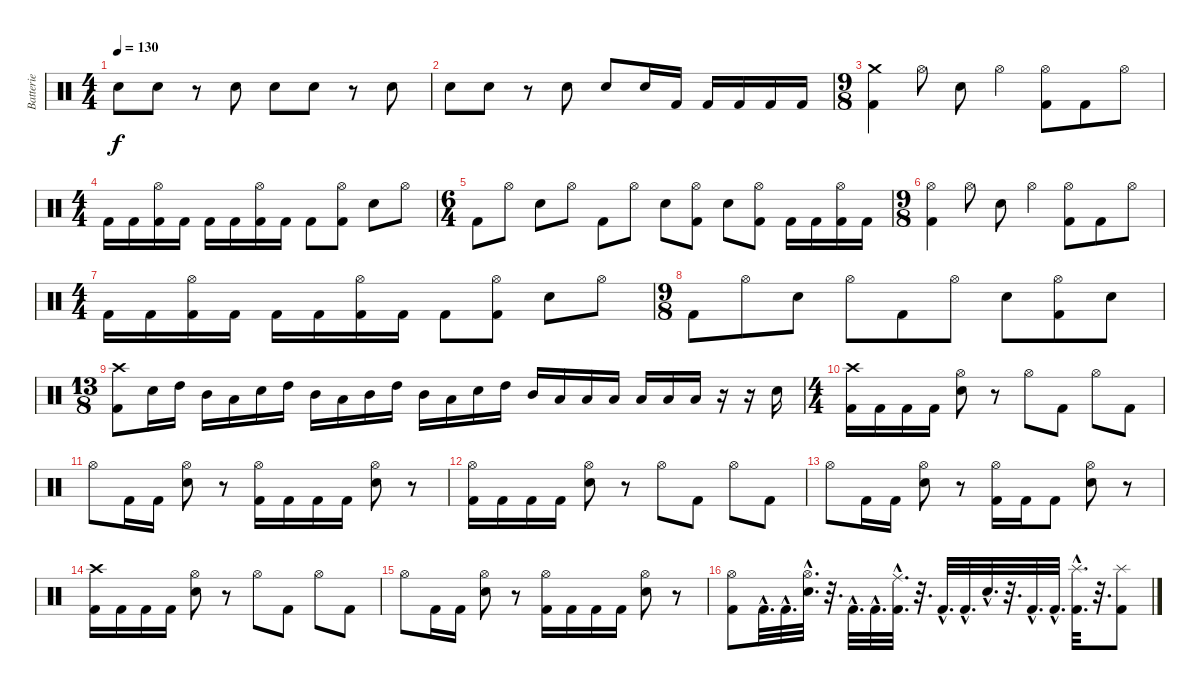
\track ("Batterie" "Batterie") {instrument percussion}
\staff {score}
\articulation defaults
\ts (4 4)
\tempo 130
\clef neutral
\ks c "Snare (hit) 2".8{dy f} "Snare (hit) 2".8
r.8 "Snare (hit) 2".8 "Snare (hit) 2".8 "Snare (hit) 2".8 r.8 "Snare (hit) 2".8 |
"Snare (hit) 2".8 "Snare (hit) 2".8 r.8 "Snare (hit) 2".8 "Snare (hit) 2".8 "Snare (hit) 2".16 "Kick (hit) 2".16 "Kick (hit) 2".16 "Kick (hit) 2".16 "Kick (hit) 2".16 "Kick (hit) 2".16 |
\ts (9 8)
("Crash medium (hit)" "Kick (hit) 2").4 "Hi-Hat (open)".8 "Snare (hit) 2".8 "Hi-Hat (open)".4 ("Hi-Hat (open)" "Kick (hit) 2").8 "Kick (hit) 2".8 "Hi-Hat (open)".8 |
\ts (4 4)
"Kick (hit) 2".16 "Kick (hit) 2".16 ("Hi-Hat (open)" "Kick (hit) 2").16 "Kick (hit) 2".16 "Kick (hit) 2".16 "Kick (hit) 2".16 ("Hi-Hat (open)" "Kick (hit) 2").16 "Kick (hit) 2".16 "Kick (hit) 2".8 ("Hi-Hat (open)" "Kick (hit) 2").8 "Snare (hit) 2".8 "Hi-Hat (open)".8 |
\ts (6 4)
"Kick (hit) 2".8 "Hi-Hat (open)".8 "Snare (hit) 2".8 "Hi-Hat (open)".8 "Kick (hit) 2".8 "Hi-Hat (open)".8 "Snare (hit) 2".8 ("Hi-Hat (open)" "Kick (hit) 2").8 "Snare (hit) 2".8 ("Hi-Hat (open)" "Kick (hit) 2").8 "Kick (hit) 2".16 "Kick (hit) 2".16 ("Hi-Hat (open)" "Kick (hit) 2").16 "Kick (hit) 2".16 |
\ts (9 8)
("Hi-Hat (open)" "Kick (hit) 2").4 "Hi-Hat (open)".8 "Snare (hit) 2".8 "Hi-Hat (open)".4 ("Hi-Hat (open)" "Kick (hit) 2").8 "Kick (hit) 2".8 "Hi-Hat (open)".8 |
\ts (4 4)
"Kick (hit) 2".16 "Kick (hit) 2".16 ("Hi-Hat (open)" "Kick (hit) 2").16 "Kick (hit) 2".16 "Kick (hit) 2".16 "Kick (hit) 2".16 ("Hi-Hat (open)" "Kick (hit) 2").16 "Kick (hit) 2".16 "Kick (hit) 2".8 ("Hi-Hat (open)" "Kick (hit) 2").8 "Snare (hit) 2".8 "Hi-Hat (open)".8 |
\ts (9 8)
"Kick (hit) 2".8 "Hi-Hat (open)".8 "Snare (hit) 2".8 "Hi-Hat (open)".8 "Kick (hit) 2".8 "Hi-Hat (open)".8 "Snare (hit) 2".8 ("Hi-Hat (open)" "Kick (hit) 2").8 "Snare (hit) 2".8 |
\ts (13 8)
("Crash high (hit)" "Kick (hit) 2").8 "Snare (hit) 2".16 "High Tom (hit)".16 "Mid Tom (hit)".16 "Low Floor Tom (hit)".16 "Snare (hit) 2".16 "High Tom (hit)".16 "Mid Tom (hit)".16 "Low Floor Tom (hit)".16 "Mid Tom (hit)".16 "High Tom (hit)".16 "Mid Tom (hit)".16 "Low Tom (hit)".16 "Snare (hit) 2".16 "High Tom (hit)".16 "Mid Tom (hit)".16 "Low Floor Tom (hit)".16 "Low Floor Tom (hit)".16 "Low Tom (hit)".16 "Low Floor Tom (hit)".16 "Low Floor Tom (hit)".16 "Low Floor Tom (hit)".16 r.16 r.16 "Snare (hit) 2".16 |
\ts (4 4)
("Crash high (hit)" "Kick (hit) 2").16 "Kick (hit) 2".16 "Kick (hit) 2".16 "Kick (hit) 2".16 ("Hi-Hat (open)" "Snare (hit) 2").8 r.8 "Hi-Hat (open)".8 "Kick (hit) 2".8 "Hi-Hat (open)".8 "Kick (hit) 2".8 |
"Hi-Hat (open)".8 "Kick (hit) 2".16 "Kick (hit) 2".16 ("Hi-Hat (open)" "Snare (hit) 2").8 r.8 ("Hi-Hat (open)" "Kick (hit) 2").16 "Kick (hit) 2".16 "Kick (hit) 2".16 "Kick (hit) 2".16 ("Hi-Hat (open)" "Snare (hit) 2").8 r.8 |
("Hi-Hat (open)" "Kick (hit) 2").16 "Kick (hit) 2".16 "Kick (hit) 2".16 "Kick (hit) 2".16 ("Hi-Hat (open)" "Snare (hit) 2").8 r.8 "Hi-Hat (open)".8 "Kick (hit) 2".8 "Hi-Hat (open)".8 "Kick (hit) 2".8 |
"Hi-Hat (open)".8 "Kick (hit) 2".16 "Kick (hit) 2".16 ("Hi-Hat (open)" "Snare (hit) 2").8 r.8 ("Hi-Hat (open)" "Kick (hit) 2").16 "Kick (hit) 2".16 "Kick (hit) 2".8 ("Hi-Hat (open)" "Snare (hit) 2").8 r.8 |
("Crash high (hit)" "Kick (hit) 2").16 "Kick (hit) 2".16 "Kick (hit) 2".16 "Kick (hit) 2".16 ("Hi-Hat (open)" "Snare (hit) 2").8 r.8 "Hi-Hat (open)".8 "Kick (hit) 2".8 "Hi-Hat (open)".8 "Kick (hit) 2".8 |
"Hi-Hat (open)".8 "Kick (hit) 2".16 "Kick (hit) 2".16 ("Hi-Hat (open)" "Snare (hit) 2").8 r.8 ("Hi-Hat (open)" "Kick (hit) 2").16 "Kick (hit) 2".16 "Kick (hit) 2".16 "Kick (hit) 2".16 ("Hi-Hat (open)" "Snare (hit) 2").8 r.8 |
("Hi-Hat (open)" "Kick (hit) 2").8 "Kick (hit) 2"{hac}.32{d} "Kick (hit) 2"{hac}.32{d} ("Hi-Hat (open)"{hac} "Snare (hit) 2"{hac}).32{d} r.32{d} "Kick (hit) 2"{hac}.32{d} "Kick (hit) 2"{hac}.32{d} ("Ride (middle)"{hac} "Kick (hit) 2"{hac}).32{d} r.32{d} "Kick (hit) 2"{hac}.32{d} "Kick (hit) 2"{hac}.32{d} "Snare (hit) 2"{hac}.32{d} r.32{d} "Kick (hit) 2"{hac}.32{d} "Kick (hit) 2"{hac}.32{d} ("Splash (hit)"{hac} "Kick (hit) 2"{hac}).32{d} r.32{d} ("Splash (hit)" "Kick (hit) 2").8
